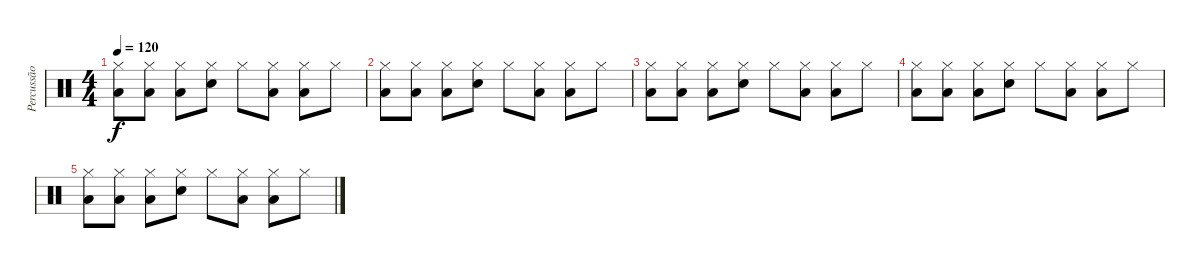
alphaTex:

\track ("Percussão" "Percussão") {instrument percussion}
\staff {score}
\articulation defaults
\ts (4 4)
\tempo 120
\clef neutral
\ks c
("Low Floor Tom (hit)" "Hi-Hat (closed)").8{dy f} ("Low Floor Tom (hit)" "Hi-Hat (closed)").8 ("Low Floor Tom (hit)" "Hi-Hat (closed)").8 ("Snare (hit) 2" "Hi-Hat (closed)").8 "Hi-Hat (closed)".8 ("Low Floor Tom (hit)" "Hi-Hat (closed)").8 ("Low Floor Tom (hit)" "Hi-Hat (closed)").8 "Hi-Hat (closed)".8 |
("Low Floor Tom (hit)" "Hi-Hat (closed)").8 ("Low Floor Tom (hit)" "Hi-Hat (closed)").8 ("Low Floor Tom (hit)" "Hi-Hat (closed)").8 ("Snare (hit) 2" "Hi-Hat (closed)").8 "Hi-Hat (closed)".8 ("Low Floor Tom (hit)" "Hi-Hat (closed)").8 ("Low Floor Tom (hit)" "Hi-Hat (closed)").8 "Hi-Hat (closed)".8 |
("Low Floor Tom (hit)" "Hi-Hat (closed)").8 ("Low Floor Tom (hit)" "Hi-Hat (closed)").8 ("Low Floor Tom (hit)" "Hi-Hat (closed)").8 ("Snare (hit) 2" "Hi-Hat (closed)").8 "Hi-Hat (closed)".8 ("Low Floor Tom (hit)" "Hi-Hat (closed)").8 ("Low Floor Tom (hit)" "Hi-Hat (closed)").8 "Hi-Hat (closed)".8 |
("Low Floor Tom (hit)" "Hi-Hat (closed)").8 ("Low Floor Tom (hit)" "Hi-Hat (closed)").8 ("Low Floor Tom (hit)" "Hi-Hat (closed)").8 ("Snare (hit) 2" "Hi-Hat (closed)").8 "Hi-Hat (closed)".8 ("Low Floor Tom (hit)" "Hi-Hat (closed)").8 ("Low Floor Tom (hit)" "Hi-Hat (closed)").8 "Hi-Hat (closed)".8 |
("Low Floor Tom (hit)" "Hi-Hat (closed)").8 ("Low Floor Tom (hit)" "Hi-Hat (closed)").8 ("Low Floor Tom (hit)" "Hi-Hat (closed)").8 ("Snare (hit) 2" "Hi-Hat (closed)").8 "Hi-Hat (closed)".8 ("Low Floor Tom (hit)" "Hi-Hat (closed)").8 ("Low Floor Tom (hit)" "Hi-Hat (closed)").8 "Hi-Hat (closed)".8
